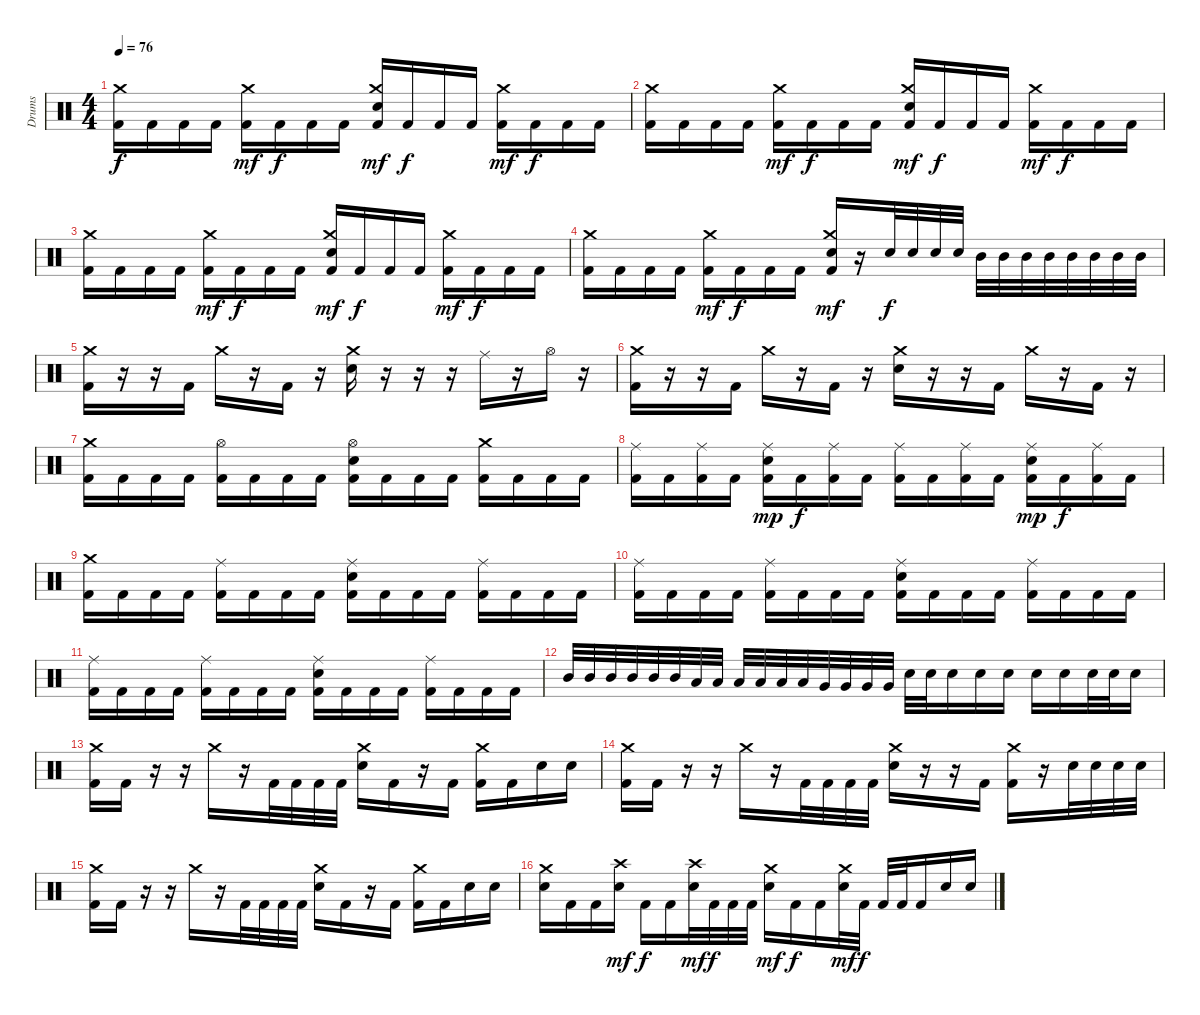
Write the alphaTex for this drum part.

\track ("Drums" "Drums") {instrument percussion}
\staff {score}
\articulation defaults
\ts (4 4)
\tempo 76
\clef neutral
\ks c
("Kick (hit) 2" "Crash medium (hit)").16{dy f} "Kick (hit) 2".16 "Kick (hit) 2".16 "Kick (hit) 2".16 ("Kick (hit) 2" "Crash medium (hit)").16{dy mf} "Kick (hit) 2".16{dy f} "Kick (hit) 2".16 "Kick (hit) 2".16 ("Kick (hit) 2" "Crash medium (hit)" "Electric Snare (hit)").16{dy mf} "Kick (hit) 2".16{dy f} "Kick (hit) 2".16 "Kick (hit) 2".16 ("Kick (hit) 2" "Crash medium (hit)").16{dy mf} "Kick (hit) 2".16{dy f} "Kick (hit) 2".16 "Kick (hit) 2".16 |
("Kick (hit) 2" "Crash medium (hit)").16 "Kick (hit) 2".16 "Kick (hit) 2".16 "Kick (hit) 2".16 ("Kick (hit) 2" "Crash medium (hit)").16{dy mf} "Kick (hit) 2".16{dy f} "Kick (hit) 2".16 "Kick (hit) 2".16 ("Kick (hit) 2" "Crash medium (hit)" "Electric Snare (hit)").16{dy mf} "Kick (hit) 2".16{dy f} "Kick (hit) 2".16 "Kick (hit) 2".16 ("Kick (hit) 2" "Crash medium (hit)").16{dy mf} "Kick (hit) 2".16{dy f} "Kick (hit) 2".16 "Kick (hit) 2".16 |
("Kick (hit) 2" "Crash medium (hit)").16 "Kick (hit) 2".16 "Kick (hit) 2".16 "Kick (hit) 2".16 ("Kick (hit) 2" "Crash medium (hit)").16{dy mf} "Kick (hit) 2".16{dy f} "Kick (hit) 2".16 "Kick (hit) 2".16 ("Kick (hit) 2" "Crash medium (hit)" "Electric Snare (hit)").16{dy mf} "Kick (hit) 2".16{dy f} "Kick (hit) 2".16 "Kick (hit) 2".16 ("Kick (hit) 2" "Crash medium (hit)").16{dy mf} "Kick (hit) 2".16{dy f} "Kick (hit) 2".16 "Kick (hit) 2".16 |
("Kick (hit) 2" "Crash medium (hit)").16 "Kick (hit) 2".16 "Kick (hit) 2".16 "Kick (hit) 2".16 ("Kick (hit) 2" "Crash medium (hit)").16{dy mf} "Kick (hit) 2".16{dy f} "Kick (hit) 2".16 "Kick (hit) 2".16 ("Kick (hit) 2" "Crash medium (hit)" "Electric Snare (hit)").16{dy mf} r.16 "Electric Snare (hit)".32{dy f} "Electric Snare (hit)".32 "Electric Snare (hit)".32 "Electric Snare (hit)".32 "Mid Tom (hit)".32 "Mid Tom (hit)".32 "Mid Tom (hit)".32 "Mid Tom (hit)".32 "Mid Tom (hit)".32 "Mid Tom (hit)".32 "Mid Tom (hit)".32 "Mid Tom (hit)".32 |
("Kick (hit) 2" "Crash medium (hit)").16 r.16 r.16 "Kick (hit) 2".16 "Crash medium (hit)".16 r.16 "Kick (hit) 2".16 r.16 ("Electric Snare (hit)" "Crash medium (hit)").16 r.16 r.16 r.16 "Ride (middle)".16 r.16 "Hi-Hat (open)".16 r.16 |
("Kick (hit) 2" "Crash medium (hit)").16 r.16 r.16 "Kick (hit) 2".16 "Crash medium (hit)".16 r.16 "Kick (hit) 2".16 r.16 ("Crash medium (hit)" "Electric Snare (hit)").16 r.16 r.16 "Kick (hit) 2".16 "Crash medium (hit)".16 r.16 "Kick (hit) 2".16 r.16 |
("Kick (hit) 2" "Crash medium (hit)").16 "Kick (hit) 2".16 "Kick (hit) 2".16 "Kick (hit) 2".16 ("Kick (hit) 2" "Hi-Hat (open)").16 "Kick (hit) 2".16 "Kick (hit) 2".16 "Kick (hit) 2".16 ("Kick (hit) 2" "Hi-Hat (open)" "Electric Snare (hit)").16 "Kick (hit) 2".16 "Kick (hit) 2".16 "Kick (hit) 2".16 ("Kick (hit) 2" "Crash medium (hit)").16 "Kick (hit) 2".16 "Kick (hit) 2".16 "Kick (hit) 2".16 |
("Kick (hit) 2" "Ride (middle)").16 "Kick (hit) 2".16 ("Kick (hit) 2" "Ride (middle)").16 "Kick (hit) 2".16 ("Kick (hit) 2" "Ride (middle)" "Electric Snare (hit)").16{dy mp} "Kick (hit) 2".16{dy f} ("Kick (hit) 2" "Ride (middle)").16 "Kick (hit) 2".16 ("Kick (hit) 2" "Ride (middle)").16 "Kick (hit) 2".16 ("Kick (hit) 2" "Ride (middle)").16 "Kick (hit) 2".16 ("Kick (hit) 2" "Ride (middle)" "Electric Snare (hit)").16{dy mp} "Kick (hit) 2".16{dy f} ("Kick (hit) 2" "Ride (middle)").16 "Kick (hit) 2".16 |
("Kick (hit) 2" "Crash medium (hit)").16 "Kick (hit) 2".16 "Kick (hit) 2".16 "Kick (hit) 2".16 ("Kick (hit) 2" "Ride (middle)").16 "Kick (hit) 2".16 "Kick (hit) 2".16 "Kick (hit) 2".16 ("Kick (hit) 2" "Ride (middle)" "Electric Snare (hit)").16 "Kick (hit) 2".16 "Kick (hit) 2".16 "Kick (hit) 2".16 ("Kick (hit) 2" "Ride (middle)").16 "Kick (hit) 2".16 "Kick (hit) 2".16 "Kick (hit) 2".16 |
("Kick (hit) 2" "Ride (middle)").16 "Kick (hit) 2".16 "Kick (hit) 2".16 "Kick (hit) 2".16 ("Kick (hit) 2" "Ride (middle)").16 "Kick (hit) 2".16 "Kick (hit) 2".16 "Kick (hit) 2".16 ("Kick (hit) 2" "Ride (middle)" "Electric Snare (hit)").16 "Kick (hit) 2".16 "Kick (hit) 2".16 "Kick (hit) 2".16 ("Kick (hit) 2" "Ride (middle)").16 "Kick (hit) 2".16 "Kick (hit) 2".16 "Kick (hit) 2".16 |
("Kick (hit) 2" "Ride (middle)").16 "Kick (hit) 2".16 "Kick (hit) 2".16 "Kick (hit) 2".16 ("Kick (hit) 2" "Ride (middle)").16 "Kick (hit) 2".16 "Kick (hit) 2".16 "Kick (hit) 2".16 ("Kick (hit) 2" "Ride (middle)" "Electric Snare (hit)").16 "Kick (hit) 2".16 "Kick (hit) 2".16 "Kick (hit) 2".16 ("Kick (hit) 2" "Ride (middle)").16 "Kick (hit) 2".16 "Kick (hit) 2".16 "Kick (hit) 2".16 |
"Mid Tom (hit)".32 "Mid Tom (hit)".32 "Mid Tom (hit)".32 "Mid Tom (hit)".32 "Mid Tom (hit)".32 "Mid Tom (hit)".32 "Low Tom (hit)".32 "Low Tom (hit)".32 "Low Tom (hit)".32 "Low Tom (hit)".32 "Low Tom (hit)".32 "Low Tom (hit)".32 "Very Low Tom (hit)".32 "Very Low Tom (hit)".32 "Very Low Tom (hit)".32 "Very Low Tom (hit)".32 "Electric Snare (hit)".32 "Electric Snare (hit)".32 "Electric Snare (hit)".16 "Electric Snare (hit)".16 "Electric Snare (hit)".16 "Electric Snare (hit)".16 "Electric Snare (hit)".16 "Electric Snare (hit)".32 "Electric Snare (hit)".32 "Electric Snare (hit)".16 |
("Kick (hit) 2" "Crash medium (hit)").16 "Kick (hit) 2".16 r.16 r.16 "Crash medium (hit)".16 r.16 "Kick (hit) 2".32 "Kick (hit) 2".32 "Kick (hit) 2".32 "Kick (hit) 2".32 ("Electric Snare (hit)" "Crash medium (hit)").16 "Kick (hit) 2".16 r.16 "Kick (hit) 2".16 ("Kick (hit) 2" "Crash medium (hit)").16 "Kick (hit) 2".16 "Electric Snare (hit)".16 "Electric Snare (hit)".16 |
("Kick (hit) 2" "Crash medium (hit)").16 "Kick (hit) 2".16 r.16 r.16 "Crash medium (hit)".16 r.16 "Kick (hit) 2".32 "Kick (hit) 2".32 "Kick (hit) 2".32 "Kick (hit) 2".32 ("Electric Snare (hit)" "Crash medium (hit)").16 r.16 r.16 "Kick (hit) 2".16 ("Kick (hit) 2" "Crash medium (hit)").16 r.16 "Electric Snare (hit)".32 "Electric Snare (hit)".32 "Electric Snare (hit)".32 "Electric Snare (hit)".32 |
("Kick (hit) 2" "Crash medium (hit)").16 "Kick (hit) 2".16 r.16 r.16 "Crash medium (hit)".16 r.16 "Kick (hit) 2".32 "Kick (hit) 2".32 "Kick (hit) 2".32 "Kick (hit) 2".32 ("Electric Snare (hit)" "Crash medium (hit)").16 "Kick (hit) 2".16 r.16 "Kick (hit) 2".16 ("Kick (hit) 2" "Crash medium (hit)").16 "Kick (hit) 2".16 "Electric Snare (hit)".16 "Electric Snare (hit)".16 |
("Electric Snare (hit)" "Crash medium (hit)").16 "Kick (hit) 2".16 "Kick (hit) 2".16 ("Electric Snare (hit)" "Crash high (hit)").16{dy mf} "Kick (hit) 2".16{dy f} "Kick (hit) 2".16 ("Electric Snare (hit)" "Crash high (hit)").32{dy mf} "Kick (hit) 2".32{dy f} "Kick (hit) 2".32 "Kick (hit) 2".32 ("Electric Snare (hit)" "Crash medium (hit)").16{dy mf} "Kick (hit) 2".16{dy f} "Kick (hit) 2".16 ("Electric Snare (hit)" "Crash medium (hit)").32{dy mf} "Kick (hit) 2".32{dy f} "Kick (hit) 2".32 "Kick (hit) 2".32 "Kick (hit) 2".16 "Electric Snare (hit)".16 "Electric Snare (hit)".16
